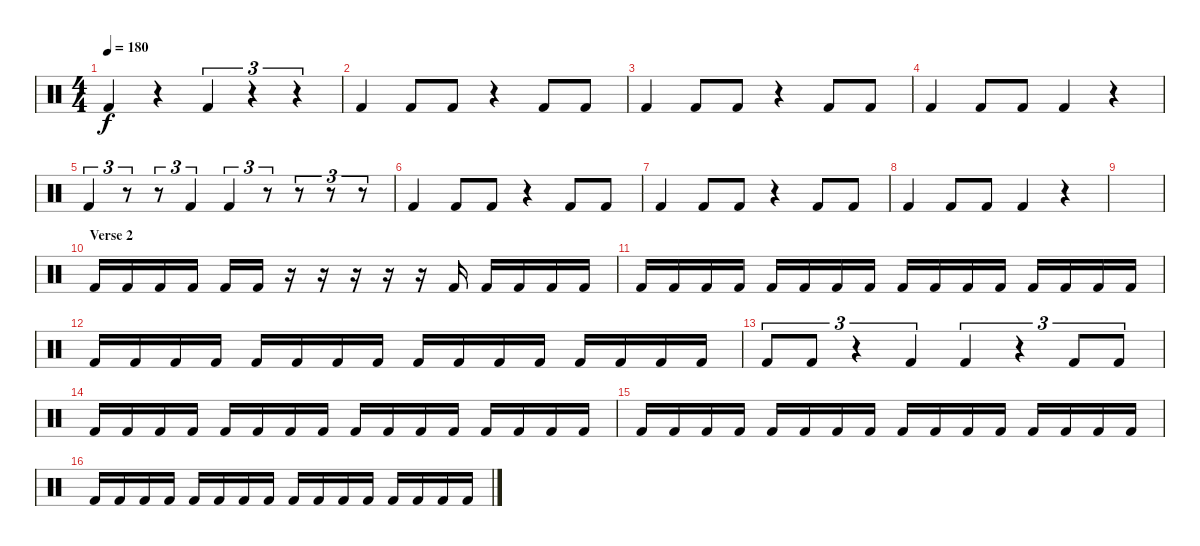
\track "" {instrument percussion}
\staff {score}
\articulation defaults
\ts (4 4)
\tempo 180
\clef neutral
\ks c "Kick (hit) 2".4{dy f}
r.4 "Kick (hit) 2".4{tu (3 2)} r.4{tu (3 2)} r.4{tu (3 2)} |
"Kick (hit) 2".4 "Kick (hit) 2".8 "Kick (hit) 2".8 r.4 "Kick (hit) 2".8 "Kick (hit) 2".8 |
"Kick (hit) 2".4 "Kick (hit) 2".8 "Kick (hit) 2".8 r.4 "Kick (hit) 2".8 "Kick (hit) 2".8 |
"Kick (hit) 2".4 "Kick (hit) 2".8 "Kick (hit) 2".8 "Kick (hit) 2".4 r.4 |
"Kick (hit) 2".4{tu (3 2)} r.8{tu (3 2)} r.8{tu (3 2)} "Kick (hit) 2".4{tu (3 2)} "Kick (hit) 2".4{tu (3 2)} r.8{tu (3 2)} r.8{tu (3 2)} r.8{tu (3 2)} r.8{tu (3 2)} |
"Kick (hit) 2".4 "Kick (hit) 2".8 "Kick (hit) 2".8 r.4 "Kick (hit) 2".8 "Kick (hit) 2".8 |
"Kick (hit) 2".4 "Kick (hit) 2".8 "Kick (hit) 2".8 r.4 "Kick (hit) 2".8 "Kick (hit) 2".8 |
"Kick (hit) 2".4 "Kick (hit) 2".8 "Kick (hit) 2".8 "Kick (hit) 2".4 r.4 |
|
\section ("" "Verse 2")
"Kick (hit) 2".16 "Kick (hit) 2".16 "Kick (hit) 2".16 "Kick (hit) 2".16 "Kick (hit) 2".16 "Kick (hit) 2".16 r.16 r.16 r.16 r.16 r.16 "Kick (hit) 2".16 "Kick (hit) 2".16 "Kick (hit) 2".16 "Kick (hit) 2".16 "Kick (hit) 2".16 |
"Kick (hit) 2".16 "Kick (hit) 2".16 "Kick (hit) 2".16 "Kick (hit) 2".16 "Kick (hit) 2".16 "Kick (hit) 2".16 "Kick (hit) 2".16 "Kick (hit) 2".16 "Kick (hit) 2".16 "Kick (hit) 2".16 "Kick (hit) 2".16 "Kick (hit) 2".16 "Kick (hit) 2".16 "Kick (hit) 2".16 "Kick (hit) 2".16 "Kick (hit) 2".16 |
"Kick (hit) 2".16 "Kick (hit) 2".16 "Kick (hit) 2".16 "Kick (hit) 2".16 "Kick (hit) 2".16 "Kick (hit) 2".16 "Kick (hit) 2".16 "Kick (hit) 2".16 "Kick (hit) 2".16 "Kick (hit) 2".16 "Kick (hit) 2".16 "Kick (hit) 2".16 "Kick (hit) 2".16 "Kick (hit) 2".16 "Kick (hit) 2".16 "Kick (hit) 2".16 |
"Kick (hit) 2".8{tu (3 2)} "Kick (hit) 2".8{tu (3 2)} r.4{tu (3 2)} "Kick (hit) 2".4{tu (3 2)} "Kick (hit) 2".4{tu (3 2)} r.4{tu (3 2)} "Kick (hit) 2".8{tu (3 2)} "Kick (hit) 2".8{tu (3 2)} |
"Kick (hit) 2".16 "Kick (hit) 2".16 "Kick (hit) 2".16 "Kick (hit) 2".16 "Kick (hit) 2".16 "Kick (hit) 2".16 "Kick (hit) 2".16 "Kick (hit) 2".16 "Kick (hit) 2".16 "Kick (hit) 2".16 "Kick (hit) 2".16 "Kick (hit) 2".16 "Kick (hit) 2".16 "Kick (hit) 2".16 "Kick (hit) 2".16 "Kick (hit) 2".16 |
"Kick (hit) 2".16 "Kick (hit) 2".16 "Kick (hit) 2".16 "Kick (hit) 2".16 "Kick (hit) 2".16 "Kick (hit) 2".16 "Kick (hit) 2".16 "Kick (hit) 2".16 "Kick (hit) 2".16 "Kick (hit) 2".16 "Kick (hit) 2".16 "Kick (hit) 2".16 "Kick (hit) 2".16 "Kick (hit) 2".16 "Kick (hit) 2".16 "Kick (hit) 2".16 |
"Kick (hit) 2".16 "Kick (hit) 2".16 "Kick (hit) 2".16 "Kick (hit) 2".16 "Kick (hit) 2".16 "Kick (hit) 2".16 "Kick (hit) 2".16 "Kick (hit) 2".16 "Kick (hit) 2".16 "Kick (hit) 2".16 "Kick (hit) 2".16 "Kick (hit) 2".16 "Kick (hit) 2".16 "Kick (hit) 2".16 "Kick (hit) 2".16 "Kick (hit) 2".16
